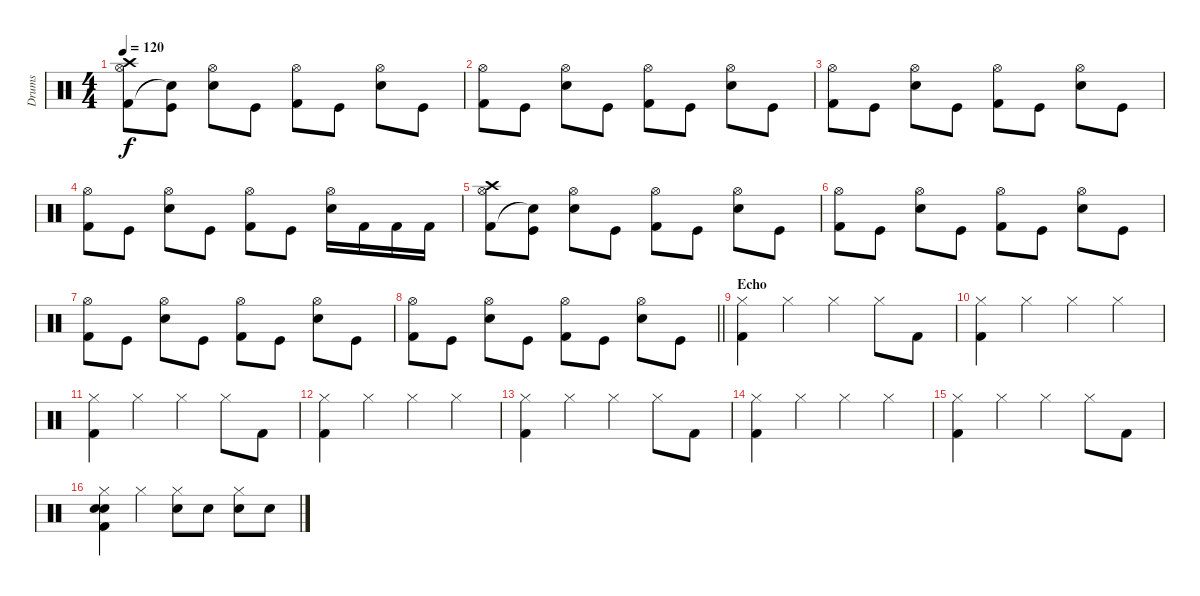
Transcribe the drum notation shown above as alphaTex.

\track ("Drums" "Drums") {instrument percussion}
\staff {score}
\articulation defaults
\ts (4 4)
\tempo 120
\clef neutral
\ks c
("Hi-Hat (open)" "Kick (hit) 2" "Crash high (hit)").8{dy f} ("Kick (hit)" "Snare (hit)"{t}).8 ("Hi-Hat (open)" "Electric Snare (hit)").8 "Kick (hit)".8 ("Hi-Hat (open)" "Kick (hit) 2").8 "Kick (hit)".8 ("Hi-Hat (open)" "Electric Snare (hit)").8 "Kick (hit)".8 |
("Hi-Hat (open)" "Kick (hit) 2").8 "Kick (hit)".8 ("Hi-Hat (open)" "Electric Snare (hit)").8 "Kick (hit)".8 ("Hi-Hat (open)" "Kick (hit) 2").8 "Kick (hit)".8 ("Hi-Hat (open)" "Electric Snare (hit)").8 "Kick (hit)".8 |
("Hi-Hat (open)" "Kick (hit) 2").8 "Kick (hit)".8 ("Hi-Hat (open)" "Electric Snare (hit)").8 "Kick (hit)".8 ("Hi-Hat (open)" "Kick (hit) 2").8 "Kick (hit)".8 ("Hi-Hat (open)" "Electric Snare (hit)").8 "Kick (hit)".8 |
("Hi-Hat (open)" "Kick (hit) 2").8 "Kick (hit)".8 ("Hi-Hat (open)" "Electric Snare (hit)").8 "Kick (hit)".8 ("Hi-Hat (open)" "Kick (hit) 2").8 "Kick (hit)".8 ("Hi-Hat (open)" "Electric Snare (hit)").16 "Kick (hit) 2".16 "Kick (hit) 2".16 "Kick (hit) 2".16 |
("Hi-Hat (open)" "Kick (hit) 2" "Crash high (hit)").8 ("Kick (hit)" "Snare (hit)"{t}).8 ("Hi-Hat (open)" "Electric Snare (hit)").8 "Kick (hit)".8 ("Hi-Hat (open)" "Kick (hit) 2").8 "Kick (hit)".8 ("Hi-Hat (open)" "Electric Snare (hit)").8 "Kick (hit)".8 |
("Hi-Hat (open)" "Kick (hit) 2").8 "Kick (hit)".8 ("Hi-Hat (open)" "Electric Snare (hit)").8 "Kick (hit)".8 ("Hi-Hat (open)" "Kick (hit) 2").8 "Kick (hit)".8 ("Hi-Hat (open)" "Electric Snare (hit)").8 "Kick (hit)".8 |
("Hi-Hat (open)" "Kick (hit) 2").8 "Kick (hit)".8 ("Hi-Hat (open)" "Electric Snare (hit)").8 "Kick (hit)".8 ("Hi-Hat (open)" "Kick (hit) 2").8 "Kick (hit)".8 ("Hi-Hat (open)" "Electric Snare (hit)").8 "Kick (hit)".8 |
\barLineRight lightlight
("Hi-Hat (open)" "Kick (hit) 2").8 "Kick (hit)".8 ("Hi-Hat (open)" "Electric Snare (hit)").8 "Kick (hit)".8 ("Hi-Hat (open)" "Kick (hit) 2").8 "Kick (hit)".8 ("Hi-Hat (open)" "Electric Snare (hit)").8 "Kick (hit)".8 |
\section ("" "Echo")
("Kick (hit) 2" "Hi-Hat (closed)").4 "Hi-Hat (closed)".4 "Hi-Hat (closed)".4 "Hi-Hat (closed)".8 "Kick (hit) 2".8 |
("Kick (hit) 2" "Hi-Hat (closed)").4 "Hi-Hat (closed)".4 "Hi-Hat (closed)".4 "Hi-Hat (closed)".4 |
("Kick (hit) 2" "Hi-Hat (closed)").4 "Hi-Hat (closed)".4 "Hi-Hat (closed)".4 "Hi-Hat (closed)".8 "Kick (hit) 2".8 |
("Kick (hit) 2" "Hi-Hat (closed)").4 "Hi-Hat (closed)".4 "Hi-Hat (closed)".4 "Hi-Hat (closed)".4 |
("Kick (hit) 2" "Hi-Hat (closed)").4 "Hi-Hat (closed)".4 "Hi-Hat (closed)".4 "Hi-Hat (closed)".8 "Kick (hit) 2".8 |
("Kick (hit) 2" "Hi-Hat (closed)").4 "Hi-Hat (closed)".4 "Hi-Hat (closed)".4 "Hi-Hat (closed)".4 |
("Kick (hit) 2" "Hi-Hat (closed)").4 "Hi-Hat (closed)".4 "Hi-Hat (closed)".4 "Hi-Hat (closed)".8 "Kick (hit) 2".8 |
("Kick (hit) 2" "Hi-Hat (closed)" "Snare (hit) 2" "Electric Snare (hit)").4 "Hi-Hat (closed)".4 ("Hi-Hat (closed)" "Snare (hit) 2").8 "Snare (hit) 2".8 ("Hi-Hat (closed)" "Electric Snare (hit)").8 "Electric Snare (hit)".8
